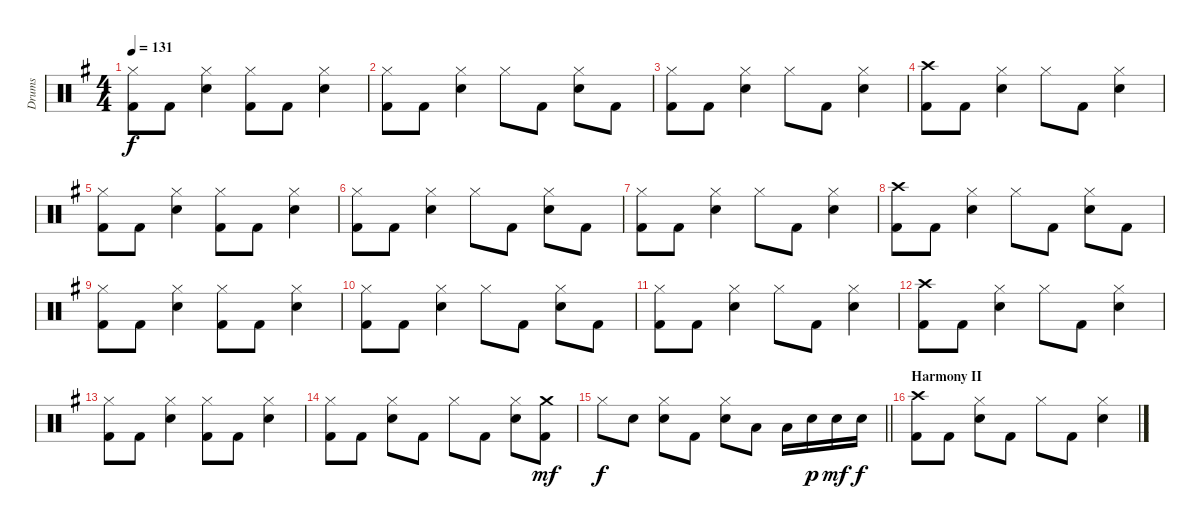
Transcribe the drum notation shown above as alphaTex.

\track ("Drums" "Drums") {instrument percussion}
\staff {score}
\articulation defaults
\ts (4 4)
\tempo 131
\clef neutral
\ks g
("Hi-Hat (closed)" "Kick (hit) 2").8{dy f} "Kick (hit) 2".8 ("Hi-Hat (closed)" "Electric Snare (hit)").4 ("Hi-Hat (closed)" "Kick (hit) 2").8 "Kick (hit) 2".8 ("Hi-Hat (closed)" "Electric Snare (hit)").4 |
("Hi-Hat (closed)" "Kick (hit) 2").8 "Kick (hit) 2".8 ("Hi-Hat (closed)" "Electric Snare (hit)").4 "Hi-Hat (closed)".8 "Kick (hit) 2".8 ("Hi-Hat (closed)" "Electric Snare (hit)").8 "Kick (hit) 2".8 |
("Hi-Hat (closed)" "Kick (hit) 2").8 "Kick (hit) 2".8 ("Hi-Hat (closed)" "Electric Snare (hit)").4 "Hi-Hat (closed)".8 "Kick (hit) 2".8 ("Hi-Hat (closed)" "Electric Snare (hit)").4 |
("Crash high (hit)" "Kick (hit) 2").8 "Kick (hit) 2".8 ("Hi-Hat (closed)" "Electric Snare (hit)").4 "Hi-Hat (closed)".8 "Kick (hit) 2".8 ("Hi-Hat (closed)" "Electric Snare (hit)").4 |
("Hi-Hat (closed)" "Kick (hit) 2").8 "Kick (hit) 2".8 ("Hi-Hat (closed)" "Electric Snare (hit)").4 ("Hi-Hat (closed)" "Kick (hit) 2").8 "Kick (hit) 2".8 ("Hi-Hat (closed)" "Electric Snare (hit)").4 |
("Hi-Hat (closed)" "Kick (hit) 2").8 "Kick (hit) 2".8 ("Hi-Hat (closed)" "Electric Snare (hit)").4 "Hi-Hat (closed)".8 "Kick (hit) 2".8 ("Hi-Hat (closed)" "Electric Snare (hit)").8 "Kick (hit) 2".8 |
("Hi-Hat (closed)" "Kick (hit) 2").8 "Kick (hit) 2".8 ("Hi-Hat (closed)" "Electric Snare (hit)").4 "Hi-Hat (closed)".8 "Kick (hit) 2".8 ("Hi-Hat (closed)" "Electric Snare (hit)").4 |
("Crash high (hit)" "Kick (hit) 2").8 "Kick (hit) 2".8 ("Hi-Hat (closed)" "Electric Snare (hit)").4 "Hi-Hat (closed)".8 "Kick (hit) 2".8 ("Hi-Hat (closed)" "Electric Snare (hit)").8 "Kick (hit) 2".8 |
("Hi-Hat (closed)" "Kick (hit) 2").8 "Kick (hit) 2".8 ("Hi-Hat (closed)" "Electric Snare (hit)").4 ("Hi-Hat (closed)" "Kick (hit) 2").8 "Kick (hit) 2".8 ("Hi-Hat (closed)" "Electric Snare (hit)").4 |
("Hi-Hat (closed)" "Kick (hit) 2").8 "Kick (hit) 2".8 ("Hi-Hat (closed)" "Electric Snare (hit)").4 "Hi-Hat (closed)".8 "Kick (hit) 2".8 ("Hi-Hat (closed)" "Electric Snare (hit)").8 "Kick (hit) 2".8 |
("Hi-Hat (closed)" "Kick (hit) 2").8 "Kick (hit) 2".8 ("Hi-Hat (closed)" "Electric Snare (hit)").4 "Hi-Hat (closed)".8 "Kick (hit) 2".8 ("Hi-Hat (closed)" "Electric Snare (hit)").4 |
("Crash high (hit)" "Kick (hit) 2").8 "Kick (hit) 2".8 ("Hi-Hat (closed)" "Electric Snare (hit)").4 "Hi-Hat (closed)".8 "Kick (hit) 2".8 ("Hi-Hat (closed)" "Electric Snare (hit)").4 |
("Hi-Hat (closed)" "Kick (hit) 2").8 "Kick (hit) 2".8 ("Hi-Hat (closed)" "Electric Snare (hit)").4 ("Hi-Hat (closed)" "Kick (hit) 2").8 "Kick (hit) 2".8 ("Hi-Hat (closed)" "Electric Snare (hit)").4 |
("Hi-Hat (closed)" "Kick (hit) 2").8 "Kick (hit) 2".8 ("Hi-Hat (closed)" "Electric Snare (hit)").8 "Kick (hit) 2".8 "Hi-Hat (closed)".8 "Kick (hit) 2".8 ("Hi-Hat (closed)" "Electric Snare (hit)").8 ("Crash medium (hit)" "Kick (hit) 2").8{dy mf} |
\barLineRight lightlight "Hi-Hat (closed)".8{dy f} "Electric Snare (hit)".8
("Hi-Hat (closed)" "Electric Snare (hit)").8 "Kick (hit) 2".8 ("Hi-Hat (closed)" "Electric Snare (hit)").8 "Low Tom (hit)".8 "Low Tom (hit)".16 "Electric Snare (hit)".16{dy p} "Electric Snare (hit)".16{dy mf} "Electric Snare (hit)".16{dy f} |
\section ("" "Harmony II")
("Crash high (hit)" "Kick (hit) 2").8 "Kick (hit) 2".8 ("Hi-Hat (closed)" "Electric Snare (hit)").8 "Kick (hit) 2".8 "Hi-Hat (closed)".8 "Kick (hit) 2".8 ("Hi-Hat (closed)" "Electric Snare (hit)").4
